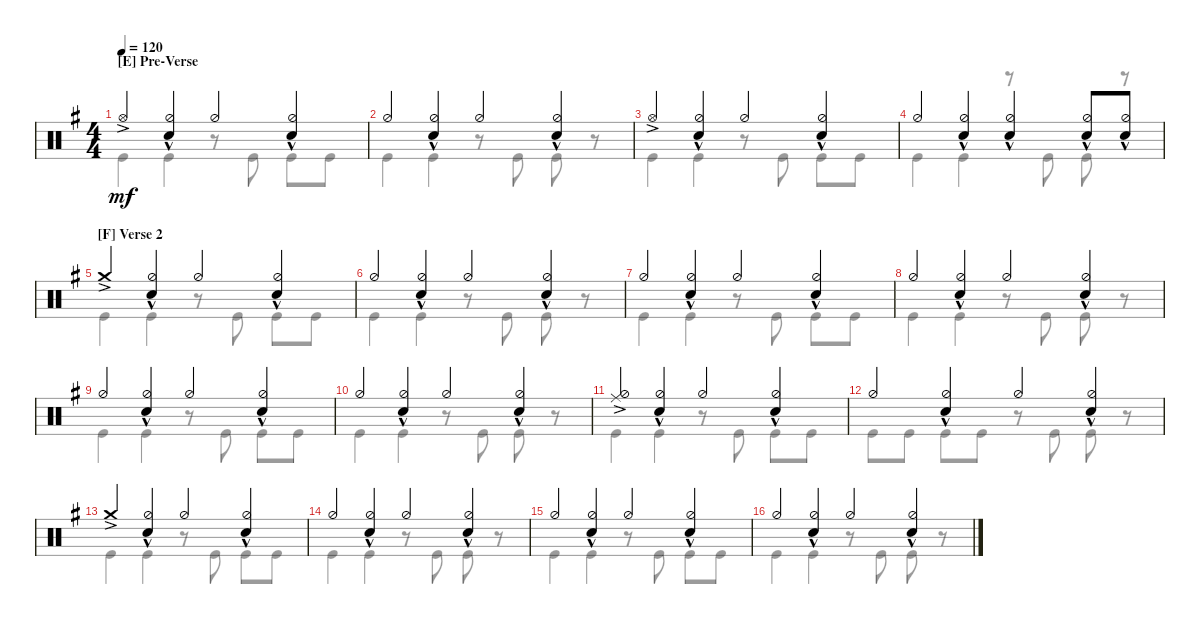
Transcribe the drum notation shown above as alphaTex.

\defaultSystemsLayout 4
\bracketExtendMode groupsimilarinstruments
\singleTrackTrackNamePolicy hidden
\multiTrackTrackNamePolicy hidden
\firstSystemTrackNameOrientation horizontal
\otherSystemsTrackNameOrientation horizontal
\track ("Maksim Udalov" "Drums") {instrument percussion}
\staff {score}
\articulation defaults
\voice
\ts (4 4)
\section ("E" "Pre-Verse")
\tempo 120
\clef neutral
\scale
1.02648
\ks g "Hi-Hat (open)"{ac}.4{dy mf}
("Snare (hit) 2"{hac} "Hi-Hat (half)").4 "Hi-Hat (half)".4 ("Snare (hit) 2"{hac} "Hi-Hat (half)").4 |
\scale
0.973518 "Hi-Hat (half)".4 ("Hi-Hat (half)" "Snare (hit) 2"{hac}).4 "Hi-Hat (half)".4 ("Hi-Hat (half)" "Snare (hit) 2"{hac}).4 |
\scale
1.02648 "Hi-Hat (open)"{ac}.4 ("Snare (hit) 2"{hac} "Hi-Hat (half)").4 "Hi-Hat (half)".4 ("Snare (hit) 2"{hac} "Hi-Hat (half)").4 |
\scale
0.973518 "Hi-Hat (half)".4 ("Hi-Hat (half)" "Snare (hit) 2"{hac}).4 ("Snare (hit) 2"{hac} "Hi-Hat (half)").4 ("Snare (hit) 2"{hac} "Hi-Hat (half)").8 ("Snare (hit) 2"{hac} "Hi-Hat (half)").8 |
\section ("F" "Verse 2")
\scale
1.02648 "Crash medium (hit)"{ac}.4 ("Snare (hit) 2"{hac} "Hi-Hat (half)").4 "Hi-Hat (half)".4 ("Snare (hit) 2"{hac} "Hi-Hat (half)").4 |
\scale
0.973518 "Hi-Hat (half)".4 ("Snare (hit) 2"{hac} "Hi-Hat (half)").4 "Hi-Hat (half)".4 ("Snare (hit) 2"{hac} "Hi-Hat (half)").4 |
\scale
1.02648 "Hi-Hat (half)".4 ("Snare (hit) 2"{hac} "Hi-Hat (half)").4 "Hi-Hat (half)".4 ("Snare (hit) 2"{hac} "Hi-Hat (half)").4 |
\scale
0.973518 "Hi-Hat (half)".4 ("Snare (hit) 2"{hac} "Hi-Hat (half)").4 "Hi-Hat (half)".4 ("Snare (hit) 2"{hac} "Hi-Hat (half)").4 |
\scale
1.02648 "Hi-Hat (half)".4 ("Snare (hit) 2"{hac} "Hi-Hat (half)").4 "Hi-Hat (half)".4 ("Snare (hit) 2"{hac} "Hi-Hat (half)").4 |
\scale
0.973518 "Hi-Hat (half)".4 ("Snare (hit) 2"{hac} "Hi-Hat (half)").4 "Hi-Hat (half)".4 ("Snare (hit) 2"{hac} "Hi-Hat (half)").4 |
\scale
1.02648 ("Hi-Hat (half)" "Ride (middle)"{ac}).4 ("Snare (hit) 2"{hac} "Hi-Hat (half)").4 "Hi-Hat (half)".4 ("Snare (hit) 2"{hac} "Hi-Hat (half)").4 |
\scale
0.973518 "Hi-Hat (half)".4 ("Snare (hit) 2"{hac} "Hi-Hat (half)").4 "Hi-Hat (half)".4 ("Snare (hit) 2"{hac} "Hi-Hat (half)").4 |
\scale
1.02648 "Crash medium (hit)"{ac}.4 ("Snare (hit) 2"{hac} "Hi-Hat (half)").4 "Hi-Hat (half)".4 ("Snare (hit) 2"{hac} "Hi-Hat (half)").4 |
\scale
0.973518 "Hi-Hat (half)".4 ("Snare (hit) 2"{hac} "Hi-Hat (half)").4 "Hi-Hat (half)".4 ("Snare (hit) 2"{hac} "Hi-Hat (half)").4 |
\scale
1.02648 "Hi-Hat (half)".4 ("Snare (hit) 2"{hac} "Hi-Hat (half)").4 "Hi-Hat (half)".4 ("Snare (hit) 2"{hac} "Hi-Hat (half)").4 |
\scale
0.973518 "Hi-Hat (half)".4 ("Snare (hit) 2"{hac} "Hi-Hat (half)").4 "Hi-Hat (half)".4 ("Snare (hit) 2"{hac} "Hi-Hat (half)").4
\voice
\clef neutral
\ottava regular
\simile none
\scale
1.02648
\ks g "Kick (hit)".4{dy mf} "Kick (hit)".4
r.8 "Kick (hit)".8 "Kick (hit)".8 "Kick (hit)".8 |
\scale
0.973518 "Kick (hit)".4 "Kick (hit)".4 r.8 "Kick (hit)".8 "Kick (hit)".8 r.8 |
\scale
1.02648 "Kick (hit)".4 "Kick (hit)".4 r.8 "Kick (hit)".8 "Kick (hit)".8 "Kick (hit)".8 |
\scale
0.973518 "Kick (hit)".4 "Kick (hit)".4 r.8 "Kick (hit)".8 "Kick (hit)".8 r.8 |
\scale
1.02648 "Kick (hit)".4 "Kick (hit)".4 r.8 "Kick (hit)".8 "Kick (hit)".8 "Kick (hit)".8 |
\scale
0.973518 "Kick (hit)".4 "Kick (hit)".4 r.8 "Kick (hit)".8 "Kick (hit)".8 r.8 |
\scale
1.02648 "Kick (hit)".4 "Kick (hit)".4 r.8 "Kick (hit)".8 "Kick (hit)".8 "Kick (hit)".8 |
\scale
0.973518 "Kick (hit)".4 "Kick (hit)".4 r.8 "Kick (hit)".8 "Kick (hit)".8 r.8 |
\scale
1.02648 "Kick (hit)".4 "Kick (hit)".4 r.8 "Kick (hit)".8 "Kick (hit)".8 "Kick (hit)".8 |
\scale
0.973518 "Kick (hit)".4 "Kick (hit)".4 r.8 "Kick (hit)".8 "Kick (hit)".8 r.8 |
\scale
1.02648 "Kick (hit)".4 "Kick (hit)".4 r.8 "Kick (hit)".8 "Kick (hit)".8 "Kick (hit)".8 |
\scale
0.973518 "Kick (hit)".8 "Kick (hit)".8 "Kick (hit)".8 "Kick (hit)".8 r.8 "Kick (hit)".8 "Kick (hit)".8 r.8 |
\scale
1.02648 "Kick (hit)".4 "Kick (hit)".4 r.8 "Kick (hit)".8 "Kick (hit)".8 "Kick (hit)".8 |
\scale
0.973518 "Kick (hit)".4 "Kick (hit)".4 r.8 "Kick (hit)".8 "Kick (hit)".8 r.8 |
\scale
1.02648 "Kick (hit)".4 "Kick (hit)".4 r.8 "Kick (hit)".8 "Kick (hit)".8 "Kick (hit)".8 |
\scale
0.973518 "Kick (hit)".4 "Kick (hit)".4 r.8 "Kick (hit)".8 "Kick (hit)".8 r.8
